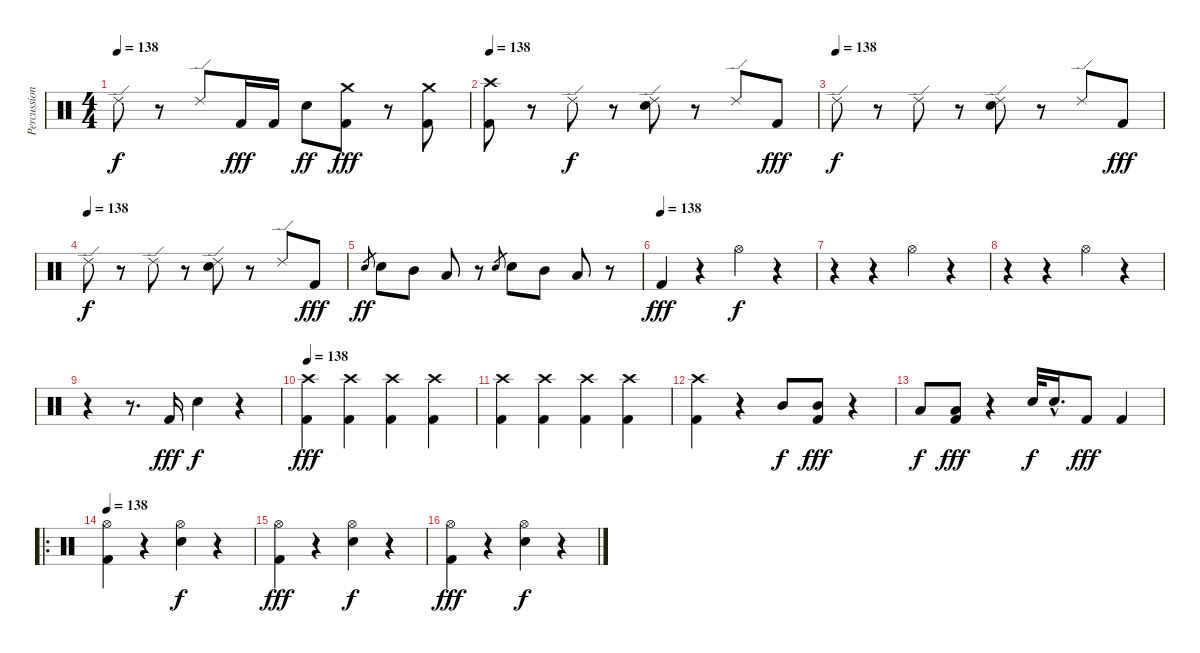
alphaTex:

\track ("Percussion" "Percussion") {instrument percussion}
\staff {score}
\articulation defaults
\ts (4 4)
\tempo 138
\clef neutral
\ks c "Ride (edge) 2".8{dy f}
r.8 "Ride (edge) 2".8 "Kick (hit) 2".16{dy fff} "Kick (hit) 2".16 "Snare (hit) 2".8{dy ff} ("Crash medium (hit)" "Kick (hit) 2").8{dy fff} r.8 ("Crash medium (hit)" "Kick (hit) 2").8 |
\tempo 138
("Crash high (hit)" "Kick (hit) 2").8 r.8 "Ride (edge) 2".8{dy f} r.8 ("Ride (edge) 2" "Snare (hit) 2").8 r.8 "Ride (edge) 2".8 "Kick (hit) 2".8{dy fff} |
\tempo (138)
"Ride (edge) 2".8{dy f} r.8 "Ride (edge) 2".8 r.8 ("Ride (edge) 2" "Snare (hit) 2").8 r.8 "Ride (edge) 2".8 "Kick (hit) 2".8{dy fff} |
\tempo (138)
"Ride (edge) 2".8{dy f} r.8 "Ride (edge) 2".8 r.8 ("Ride (edge) 2" "Snare (hit) 2").8 r.8 "Ride (edge) 2".8 "Kick (hit) 2".8{dy fff} |
"Snare (hit) 2".8{gr dy ff} "Snare (hit) 2".8 "Mid Tom (hit)".8 "Low Tom (hit)".8 r.8 "Snare (hit) 2".8{gr} "Snare (hit) 2".8 "Mid Tom (hit)".8 "Low Tom (hit)".8 r.8 |
\tempo (138)
"Kick (hit) 2".4{dy fff} r.4 "Hi-Hat (open)".4{dy f} r.4 |
r.4 r.4 "Hi-Hat (open)".4 r.4 |
r.4 r.4 "Hi-Hat (open)".4 r.4 |
r.4 r.8{d} "Kick (hit) 2".16{dy fff} "Snare (hit) 2".4{dy f} r.4 |
\tempo 138
("Crash high (hit)" "Kick (hit) 2").4{dy fff} ("Crash high (hit)" "Kick (hit) 2").4 ("Crash high (hit)" "Kick (hit) 2").4 ("Crash high (hit)" "Kick (hit) 2").4 |
("Crash high (hit)" "Kick (hit) 2").4 ("Crash high (hit)" "Kick (hit) 2").4 ("Crash high (hit)" "Kick (hit) 2").4 ("Crash high (hit)" "Kick (hit) 2").4 |
("Crash high (hit)" "Kick (hit) 2").4 r.4 "Mid Tom (hit)".8{dy f} ("Mid Tom (hit)" "Kick (hit) 2").8{dy fff} r.4 |
"Low Tom (hit)".8{dy f} ("Low Tom (hit)" "Kick (hit) 2").8{dy fff} r.4 "Snare (hit) 2".32{dy f} "Snare (hit) 2"{hac}.16{d} "Kick (hit) 2".8{dy fff} "Kick (hit) 2".4 |
\ro
\tempo 138
("Hi-Hat (open)" "Kick (hit) 2").4 r.4 ("Hi-Hat (open)" "Snare (hit) 2").4{dy f} r.4 |
("Hi-Hat (open)" "Kick (hit) 2").4{dy fff} r.4 ("Hi-Hat (open)" "Snare (hit) 2").4{dy f} r.4 |
("Hi-Hat (open)" "Kick (hit) 2").4{dy fff} r.4 ("Hi-Hat (open)" "Snare (hit) 2").4{dy f} r.4
